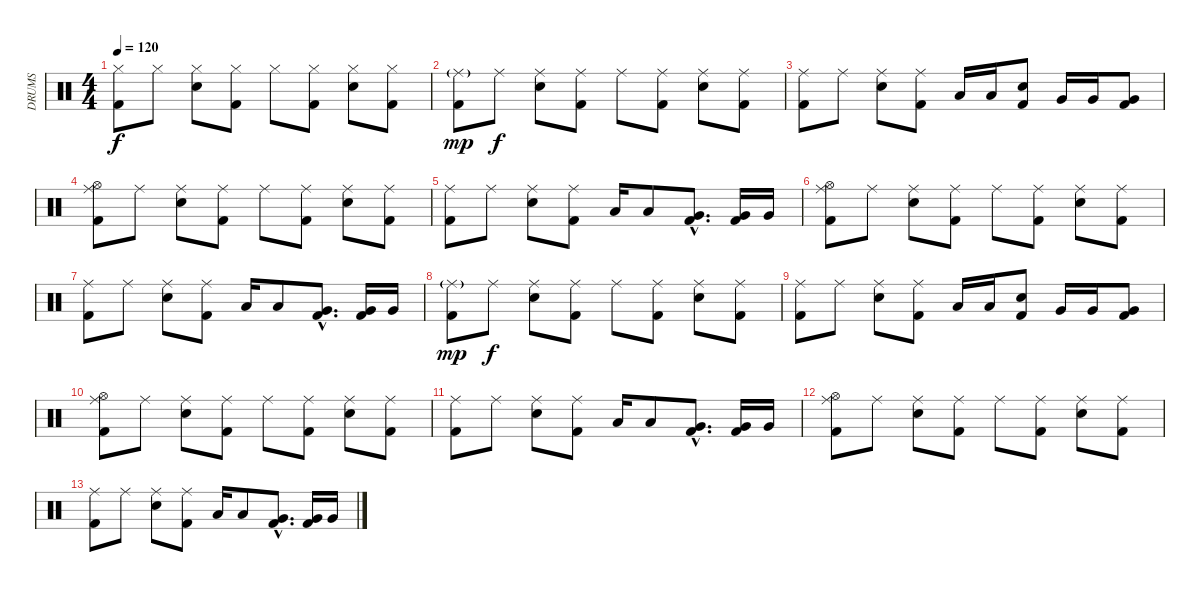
\track ("DRUMS" "DRUMS") {instrument percussion}
\staff {score}
\articulation defaults
\ts (4 4)
\tempo 120
\clef neutral
\ks c
("Kick (hit) 2" "Hi-Hat (closed)").8{dy f} "Hi-Hat (closed)".8 ("Snare (hit) 2" "Hi-Hat (closed)").8 ("Kick (hit) 2" "Hi-Hat (closed)").8 "Hi-Hat (closed)".8 ("Kick (hit) 2" "Hi-Hat (closed)").8 ("Snare (hit) 2" "Hi-Hat (closed)").8 ("Kick (hit) 2" "Hi-Hat (closed)").8 |
("Kick (hit) 2" "Ride (middle)"{g}).8{dy mp} "Ride (middle)".8{dy f} ("Snare (hit) 2" "Ride (middle)").8 ("Kick (hit) 2" "Ride (middle)").8 "Ride (middle)".8 ("Kick (hit) 2" "Ride (middle)").8 ("Snare (hit) 2" "Ride (middle)").8 ("Kick (hit) 2" "Ride (middle)").8 |
("Kick (hit) 2" "Ride (middle)").8 "Ride (middle)".8 ("Snare (hit) 2" "Ride (middle)").8 ("Kick (hit) 2" "Ride (middle)").8 "Low Tom (hit)".16 "Low Tom (hit)".16 ("Kick (hit) 2" "Snare (hit) 2").8 "Very Low Tom (hit)".16 "Very Low Tom (hit)".16 ("Kick (hit) 2" "Very Low Tom (hit)").8 |
("Kick (hit) 2" "Ride (middle)" "Hi-Hat (open)").8 "Ride (middle)".8 ("Snare (hit) 2" "Ride (middle)").8 ("Kick (hit) 2" "Ride (middle)").8 "Ride (middle)".8 ("Kick (hit) 2" "Ride (middle)").8 ("Snare (hit) 2" "Ride (middle)").8 ("Kick (hit) 2" "Ride (middle)").8 |
("Kick (hit) 2" "Ride (middle)").8 "Ride (middle)".8 ("Snare (hit) 2" "Ride (middle)").8 ("Kick (hit) 2" "Ride (middle)").8 "Low Tom (hit)".16 "Low Tom (hit)".8 ("Kick (hit) 2"{hac} "Very Low Tom (hit)"{hac}).8{d} ("Kick (hit) 2" "Very Low Tom (hit)").16 "Very Low Tom (hit)".16 |
("Kick (hit) 2" "Ride (middle)" "Hi-Hat (open)").8 "Ride (middle)".8 ("Snare (hit) 2" "Ride (middle)").8 ("Kick (hit) 2" "Ride (middle)").8 "Ride (middle)".8 ("Kick (hit) 2" "Ride (middle)").8 ("Snare (hit) 2" "Ride (middle)").8 ("Kick (hit) 2" "Ride (middle)").8 |
("Kick (hit) 2" "Ride (middle)").8 "Ride (middle)".8 ("Snare (hit) 2" "Ride (middle)").8 ("Kick (hit) 2" "Ride (middle)").8 "Low Tom (hit)".16 "Low Tom (hit)".8 ("Kick (hit) 2"{hac} "Very Low Tom (hit)"{hac}).8{d} ("Kick (hit) 2" "Very Low Tom (hit)").16 "Very Low Tom (hit)".16 |
("Kick (hit) 2" "Ride (middle)"{g}).8{dy mp} "Ride (middle)".8{dy f} ("Snare (hit) 2" "Ride (middle)").8 ("Kick (hit) 2" "Ride (middle)").8 "Ride (middle)".8 ("Kick (hit) 2" "Ride (middle)").8 ("Snare (hit) 2" "Ride (middle)").8 ("Kick (hit) 2" "Ride (middle)").8 |
("Kick (hit) 2" "Ride (middle)").8 "Ride (middle)".8 ("Snare (hit) 2" "Ride (middle)").8 ("Kick (hit) 2" "Ride (middle)").8 "Low Tom (hit)".16 "Low Tom (hit)".16 ("Kick (hit) 2" "Snare (hit) 2").8 "Very Low Tom (hit)".16 "Very Low Tom (hit)".16 ("Kick (hit) 2" "Very Low Tom (hit)").8 |
("Kick (hit) 2" "Ride (middle)" "Hi-Hat (open)").8 "Ride (middle)".8 ("Snare (hit) 2" "Ride (middle)").8 ("Kick (hit) 2" "Ride (middle)").8 "Ride (middle)".8 ("Kick (hit) 2" "Ride (middle)").8 ("Snare (hit) 2" "Ride (middle)").8 ("Kick (hit) 2" "Ride (middle)").8 |
("Kick (hit) 2" "Ride (middle)").8 "Ride (middle)".8 ("Snare (hit) 2" "Ride (middle)").8 ("Kick (hit) 2" "Ride (middle)").8 "Low Tom (hit)".16 "Low Tom (hit)".8 ("Kick (hit) 2"{hac} "Very Low Tom (hit)"{hac}).8{d} ("Kick (hit) 2" "Very Low Tom (hit)").16 "Very Low Tom (hit)".16 |
("Kick (hit) 2" "Ride (middle)" "Hi-Hat (open)").8 "Ride (middle)".8 ("Snare (hit) 2" "Ride (middle)").8 ("Kick (hit) 2" "Ride (middle)").8 "Ride (middle)".8 ("Kick (hit) 2" "Ride (middle)").8 ("Snare (hit) 2" "Ride (middle)").8 ("Kick (hit) 2" "Ride (middle)").8 |
("Kick (hit) 2" "Ride (middle)").8 "Ride (middle)".8 ("Snare (hit) 2" "Ride (middle)").8 ("Kick (hit) 2" "Ride (middle)").8 "Low Tom (hit)".16 "Low Tom (hit)".8 ("Kick (hit) 2"{hac} "Very Low Tom (hit)"{hac}).8{d} ("Kick (hit) 2" "Very Low Tom (hit)").16 "Very Low Tom (hit)".16
